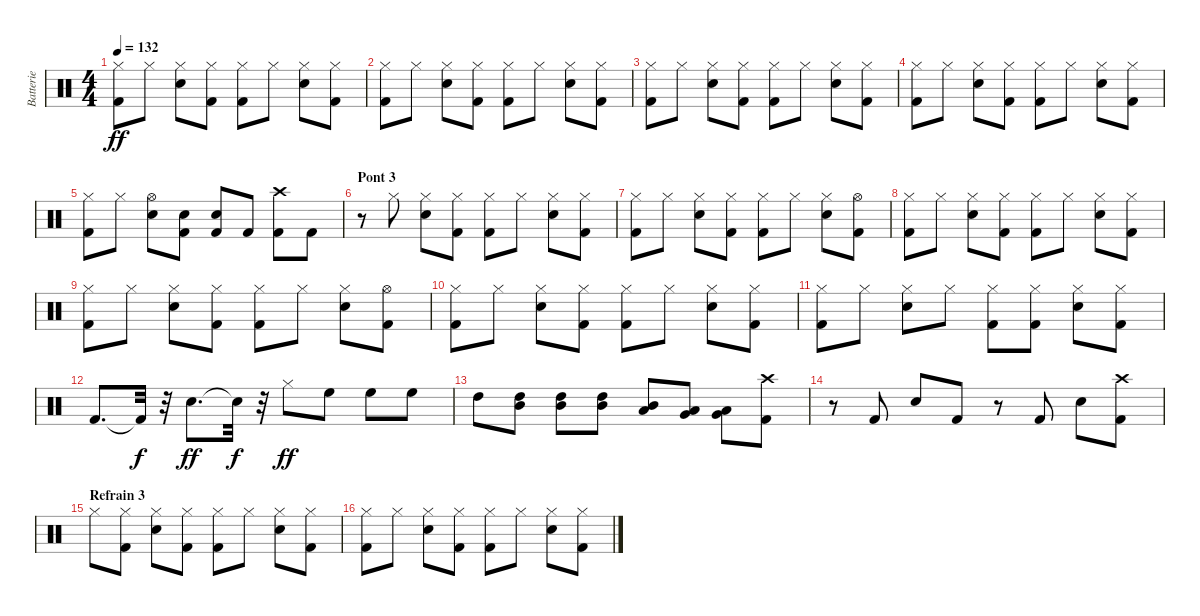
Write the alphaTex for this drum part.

\track ("Batterie" "Batterie") {instrument percussion}
\staff {score}
\articulation defaults
\ts (4 4)
\tempo 132
\clef neutral
\ks c
("Kick (hit) 2" "Hi-Hat (closed)").8{dy ff} "Hi-Hat (closed)".8 ("Snare (hit) 2" "Hi-Hat (closed)").8 ("Kick (hit) 2" "Hi-Hat (closed)").8 ("Kick (hit) 2" "Hi-Hat (closed)").8 "Hi-Hat (closed)".8 ("Snare (hit) 2" "Hi-Hat (closed)").8 ("Kick (hit) 2" "Hi-Hat (closed)").8 |
("Kick (hit) 2" "Hi-Hat (closed)").8 "Hi-Hat (closed)".8 ("Snare (hit) 2" "Hi-Hat (closed)").8 ("Kick (hit) 2" "Hi-Hat (closed)").8 ("Kick (hit) 2" "Hi-Hat (closed)").8 "Hi-Hat (closed)".8 ("Snare (hit) 2" "Hi-Hat (closed)").8 ("Kick (hit) 2" "Hi-Hat (closed)").8 |
("Kick (hit) 2" "Hi-Hat (closed)").8 "Hi-Hat (closed)".8 ("Snare (hit) 2" "Hi-Hat (closed)").8 ("Kick (hit) 2" "Hi-Hat (closed)").8 ("Kick (hit) 2" "Hi-Hat (closed)").8 "Hi-Hat (closed)".8 ("Snare (hit) 2" "Hi-Hat (closed)").8 ("Kick (hit) 2" "Hi-Hat (closed)").8 |
("Kick (hit) 2" "Hi-Hat (closed)").8 "Hi-Hat (closed)".8 ("Snare (hit) 2" "Hi-Hat (closed)").8 ("Kick (hit) 2" "Hi-Hat (closed)").8 ("Kick (hit) 2" "Hi-Hat (closed)").8 "Hi-Hat (closed)".8 ("Snare (hit) 2" "Hi-Hat (closed)").8 ("Kick (hit) 2" "Hi-Hat (closed)").8 |
("Kick (hit) 2" "Hi-Hat (closed)").8 "Hi-Hat (closed)".8 ("Snare (hit) 2" "Hi-Hat (open)").8 ("Kick (hit) 2" "Snare (hit) 2").8 ("Kick (hit) 2" "Snare (hit) 2").8 "Kick (hit) 2".8 ("Kick (hit) 2" "Crash high (hit)").8 "Kick (hit) 2".8 |
\section ("" "Pont 3")
r.8 "Hi-Hat (closed)".8 ("Snare (hit) 2" "Hi-Hat (closed)").8 ("Kick (hit) 2" "Hi-Hat (closed)").8 ("Kick (hit) 2" "Hi-Hat (closed)").8 "Hi-Hat (closed)".8 ("Snare (hit) 2" "Hi-Hat (closed)").8 ("Kick (hit) 2" "Hi-Hat (closed)").8 |
("Kick (hit) 2" "Hi-Hat (closed)").8 "Hi-Hat (closed)".8 ("Snare (hit) 2" "Hi-Hat (closed)").8 ("Kick (hit) 2" "Hi-Hat (closed)").8 ("Kick (hit) 2" "Hi-Hat (closed)").8 "Hi-Hat (closed)".8 ("Snare (hit) 2" "Hi-Hat (closed)").8 ("Kick (hit) 2" "Hi-Hat (open)").8 |
("Kick (hit) 2" "Hi-Hat (closed)").8 "Hi-Hat (closed)".8 ("Snare (hit) 2" "Hi-Hat (closed)").8 ("Kick (hit) 2" "Hi-Hat (closed)").8 ("Kick (hit) 2" "Hi-Hat (closed)").8 "Hi-Hat (closed)".8 ("Snare (hit) 2" "Hi-Hat (closed)").8 ("Kick (hit) 2" "Hi-Hat (closed)").8 |
("Kick (hit) 2" "Hi-Hat (closed)").8 "Hi-Hat (closed)".8 ("Snare (hit) 2" "Hi-Hat (closed)").8 ("Kick (hit) 2" "Hi-Hat (closed)").8 ("Kick (hit) 2" "Hi-Hat (closed)").8 "Hi-Hat (closed)".8 ("Snare (hit) 2" "Hi-Hat (closed)").8 ("Kick (hit) 2" "Hi-Hat (open)").8 |
("Kick (hit) 2" "Hi-Hat (closed)").8 "Hi-Hat (closed)".8 ("Snare (hit) 2" "Hi-Hat (closed)").8 ("Kick (hit) 2" "Hi-Hat (closed)").8 ("Kick (hit) 2" "Hi-Hat (closed)").8 "Hi-Hat (closed)".8 ("Snare (hit) 2" "Hi-Hat (closed)").8 ("Kick (hit) 2" "Hi-Hat (closed)").8 |
("Kick (hit) 2" "Hi-Hat (closed)").8 "Hi-Hat (closed)".8 ("Snare (hit) 2" "Hi-Hat (closed)").8 "Hi-Hat (closed)".8 ("Kick (hit) 2" "Hi-Hat (closed)").8 ("Kick (hit) 2" "Hi-Hat (closed)").8 ("Snare (hit) 2" "Hi-Hat (closed)").8 ("Kick (hit) 2" "Hi-Hat (closed)").8 |
"Kick (hit) 2".8{d} "Kick (hit) 2"{t}.32{dy f} r.32 "Snare (hit) 2".8{d dy ff} "Snare (hit) 2"{t}.32{dy f} r.32 "Hi-Hat (closed)".8{dy ff} "High Floor Tom (hit)".8 "High Floor Tom (hit)".8 "High Floor Tom (hit)".8 |
"High Tom (hit)".8 ("Mid Tom (hit)" "High Tom (hit)").8 ("Mid Tom (hit)" "High Tom (hit)").8 ("Mid Tom (hit)" "High Tom (hit)").8 ("Low Tom (hit)" "Mid Tom (hit)").8 ("Very Low Tom (hit)" "Low Tom (hit)").8 ("Very Low Tom (hit)" "Low Tom (hit)").8 ("Kick (hit) 2" "Crash high (hit)").8 |
r.8 "Kick (hit) 2".8 "Snare (hit) 2".8 "Kick (hit) 2".8 r.8 "Kick (hit) 2".8 "Snare (hit) 2".8 ("Kick (hit) 2" "Crash high (hit)").8 |
\section ("" "Refrain 3")
"Hi-Hat (closed)".8 ("Kick (hit) 2" "Hi-Hat (closed)").8 ("Snare (hit) 2" "Hi-Hat (closed)").8 ("Kick (hit) 2" "Hi-Hat (closed)").8 ("Kick (hit) 2" "Hi-Hat (closed)").8 "Hi-Hat (closed)".8 ("Snare (hit) 2" "Hi-Hat (closed)").8 ("Kick (hit) 2" "Hi-Hat (closed)").8 |
("Kick (hit) 2" "Hi-Hat (closed)").8 "Hi-Hat (closed)".8 ("Snare (hit) 2" "Hi-Hat (closed)").8 ("Kick (hit) 2" "Hi-Hat (closed)").8 ("Kick (hit) 2" "Hi-Hat (closed)").8 "Hi-Hat (closed)".8 ("Snare (hit) 2" "Hi-Hat (closed)").8 ("Kick (hit) 2" "Hi-Hat (closed)").8
